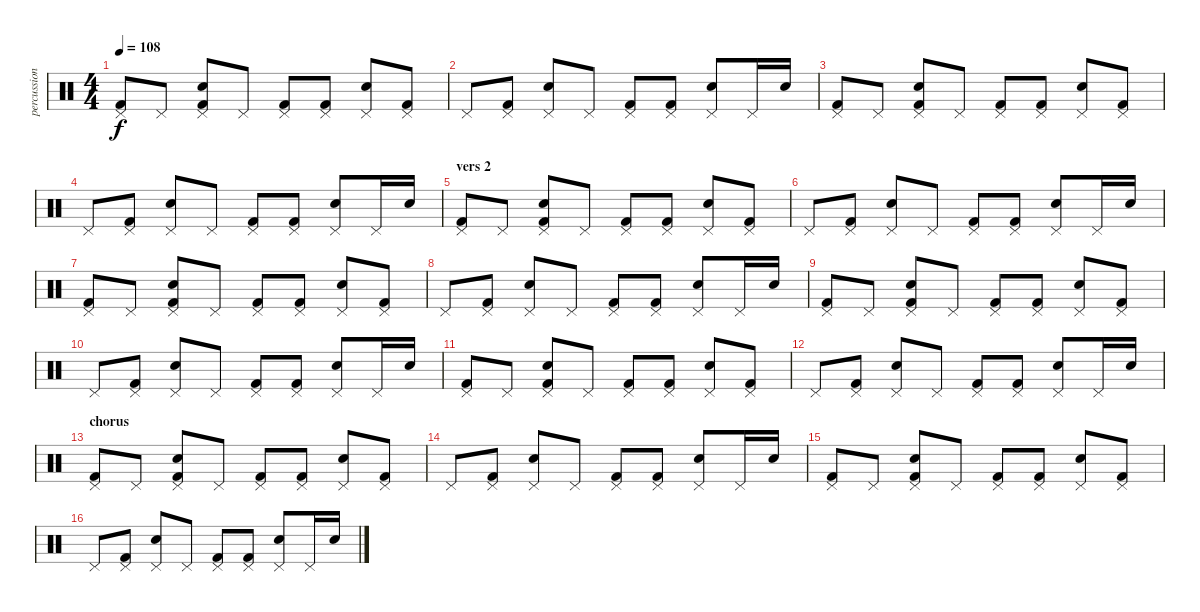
\track ("percussion" "percussion") {instrument percussion}
\staff {score}
\articulation defaults
\ts (4 4)
\tempo 108
\clef neutral
\ks c
("Pedal Hi-Hat (hit)" "Kick (hit) 2").8{dy f} "Pedal Hi-Hat (hit)".8 ("Pedal Hi-Hat (hit)" "Kick (hit) 2" "Snare (hit) 2").8 "Pedal Hi-Hat (hit)".8 ("Pedal Hi-Hat (hit)" "Kick (hit) 2").8 ("Pedal Hi-Hat (hit)" "Kick (hit) 2").8 ("Pedal Hi-Hat (hit)" "Snare (hit) 2").8 ("Pedal Hi-Hat (hit)" "Kick (hit) 2").8 |
"Pedal Hi-Hat (hit)".8 ("Pedal Hi-Hat (hit)" "Kick (hit) 2").8 ("Pedal Hi-Hat (hit)" "Snare (hit) 2").8 "Pedal Hi-Hat (hit)".8 ("Pedal Hi-Hat (hit)" "Kick (hit) 2").8 ("Pedal Hi-Hat (hit)" "Kick (hit) 2").8 ("Pedal Hi-Hat (hit)" "Snare (hit) 2").8 "Pedal Hi-Hat (hit)".16 "Snare (hit) 2".16 |
("Pedal Hi-Hat (hit)" "Kick (hit) 2").8 "Pedal Hi-Hat (hit)".8 ("Pedal Hi-Hat (hit)" "Kick (hit) 2" "Snare (hit) 2").8 "Pedal Hi-Hat (hit)".8 ("Pedal Hi-Hat (hit)" "Kick (hit) 2").8 ("Pedal Hi-Hat (hit)" "Kick (hit) 2").8 ("Pedal Hi-Hat (hit)" "Snare (hit) 2").8 ("Pedal Hi-Hat (hit)" "Kick (hit) 2").8 |
"Pedal Hi-Hat (hit)".8 ("Pedal Hi-Hat (hit)" "Kick (hit) 2").8 ("Pedal Hi-Hat (hit)" "Snare (hit) 2").8 "Pedal Hi-Hat (hit)".8 ("Pedal Hi-Hat (hit)" "Kick (hit) 2").8 ("Pedal Hi-Hat (hit)" "Kick (hit) 2").8 ("Pedal Hi-Hat (hit)" "Snare (hit) 2").8 "Pedal Hi-Hat (hit)".16 "Snare (hit) 2".16 |
\section ("" "vers 2")
("Pedal Hi-Hat (hit)" "Kick (hit) 2").8 "Pedal Hi-Hat (hit)".8 ("Pedal Hi-Hat (hit)" "Kick (hit) 2" "Snare (hit) 2").8 "Pedal Hi-Hat (hit)".8 ("Pedal Hi-Hat (hit)" "Kick (hit) 2").8 ("Pedal Hi-Hat (hit)" "Kick (hit) 2").8 ("Pedal Hi-Hat (hit)" "Snare (hit) 2").8 ("Pedal Hi-Hat (hit)" "Kick (hit) 2").8 |
"Pedal Hi-Hat (hit)".8 ("Pedal Hi-Hat (hit)" "Kick (hit) 2").8 ("Pedal Hi-Hat (hit)" "Snare (hit) 2").8 "Pedal Hi-Hat (hit)".8 ("Pedal Hi-Hat (hit)" "Kick (hit) 2").8 ("Pedal Hi-Hat (hit)" "Kick (hit) 2").8 ("Pedal Hi-Hat (hit)" "Snare (hit) 2").8 "Pedal Hi-Hat (hit)".16 "Snare (hit) 2".16 |
("Pedal Hi-Hat (hit)" "Kick (hit) 2").8 "Pedal Hi-Hat (hit)".8 ("Pedal Hi-Hat (hit)" "Kick (hit) 2" "Snare (hit) 2").8 "Pedal Hi-Hat (hit)".8 ("Pedal Hi-Hat (hit)" "Kick (hit) 2").8 ("Pedal Hi-Hat (hit)" "Kick (hit) 2").8 ("Pedal Hi-Hat (hit)" "Snare (hit) 2").8 ("Pedal Hi-Hat (hit)" "Kick (hit) 2").8 |
"Pedal Hi-Hat (hit)".8 ("Pedal Hi-Hat (hit)" "Kick (hit) 2").8 ("Pedal Hi-Hat (hit)" "Snare (hit) 2").8 "Pedal Hi-Hat (hit)".8 ("Pedal Hi-Hat (hit)" "Kick (hit) 2").8 ("Pedal Hi-Hat (hit)" "Kick (hit) 2").8 ("Pedal Hi-Hat (hit)" "Snare (hit) 2").8 "Pedal Hi-Hat (hit)".16 "Snare (hit) 2".16 |
("Pedal Hi-Hat (hit)" "Kick (hit) 2").8 "Pedal Hi-Hat (hit)".8 ("Pedal Hi-Hat (hit)" "Kick (hit) 2" "Snare (hit) 2").8 "Pedal Hi-Hat (hit)".8 ("Pedal Hi-Hat (hit)" "Kick (hit) 2").8 ("Pedal Hi-Hat (hit)" "Kick (hit) 2").8 ("Pedal Hi-Hat (hit)" "Snare (hit) 2").8 ("Pedal Hi-Hat (hit)" "Kick (hit) 2").8 |
"Pedal Hi-Hat (hit)".8 ("Pedal Hi-Hat (hit)" "Kick (hit) 2").8 ("Pedal Hi-Hat (hit)" "Snare (hit) 2").8 "Pedal Hi-Hat (hit)".8 ("Pedal Hi-Hat (hit)" "Kick (hit) 2").8 ("Pedal Hi-Hat (hit)" "Kick (hit) 2").8 ("Pedal Hi-Hat (hit)" "Snare (hit) 2").8 "Pedal Hi-Hat (hit)".16 "Snare (hit) 2".16 |
("Pedal Hi-Hat (hit)" "Kick (hit) 2").8 "Pedal Hi-Hat (hit)".8 ("Pedal Hi-Hat (hit)" "Kick (hit) 2" "Snare (hit) 2").8 "Pedal Hi-Hat (hit)".8 ("Pedal Hi-Hat (hit)" "Kick (hit) 2").8 ("Pedal Hi-Hat (hit)" "Kick (hit) 2").8 ("Pedal Hi-Hat (hit)" "Snare (hit) 2").8 ("Pedal Hi-Hat (hit)" "Kick (hit) 2").8 |
"Pedal Hi-Hat (hit)".8 ("Pedal Hi-Hat (hit)" "Kick (hit) 2").8 ("Pedal Hi-Hat (hit)" "Snare (hit) 2").8 "Pedal Hi-Hat (hit)".8 ("Pedal Hi-Hat (hit)" "Kick (hit) 2").8 ("Pedal Hi-Hat (hit)" "Kick (hit) 2").8 ("Pedal Hi-Hat (hit)" "Snare (hit) 2").8 "Pedal Hi-Hat (hit)".16 "Snare (hit) 2".16 |
\section ("" "chorus")
("Pedal Hi-Hat (hit)" "Kick (hit) 2").8 "Pedal Hi-Hat (hit)".8 ("Pedal Hi-Hat (hit)" "Kick (hit) 2" "Snare (hit) 2").8 "Pedal Hi-Hat (hit)".8 ("Pedal Hi-Hat (hit)" "Kick (hit) 2").8 ("Pedal Hi-Hat (hit)" "Kick (hit) 2").8 ("Pedal Hi-Hat (hit)" "Snare (hit) 2").8 ("Pedal Hi-Hat (hit)" "Kick (hit) 2").8 |
"Pedal Hi-Hat (hit)".8 ("Pedal Hi-Hat (hit)" "Kick (hit) 2").8 ("Pedal Hi-Hat (hit)" "Snare (hit) 2").8 "Pedal Hi-Hat (hit)".8 ("Pedal Hi-Hat (hit)" "Kick (hit) 2").8 ("Pedal Hi-Hat (hit)" "Kick (hit) 2").8 ("Pedal Hi-Hat (hit)" "Snare (hit) 2").8 "Pedal Hi-Hat (hit)".16 "Snare (hit) 2".16 |
("Pedal Hi-Hat (hit)" "Kick (hit) 2").8 "Pedal Hi-Hat (hit)".8 ("Pedal Hi-Hat (hit)" "Kick (hit) 2" "Snare (hit) 2").8 "Pedal Hi-Hat (hit)".8 ("Pedal Hi-Hat (hit)" "Kick (hit) 2").8 ("Pedal Hi-Hat (hit)" "Kick (hit) 2").8 ("Pedal Hi-Hat (hit)" "Snare (hit) 2").8 ("Pedal Hi-Hat (hit)" "Kick (hit) 2").8 |
"Pedal Hi-Hat (hit)".8 ("Pedal Hi-Hat (hit)" "Kick (hit) 2").8 ("Pedal Hi-Hat (hit)" "Snare (hit) 2").8 "Pedal Hi-Hat (hit)".8 ("Pedal Hi-Hat (hit)" "Kick (hit) 2").8 ("Pedal Hi-Hat (hit)" "Kick (hit) 2").8 ("Pedal Hi-Hat (hit)" "Snare (hit) 2").8 "Pedal Hi-Hat (hit)".16 "Snare (hit) 2".16
